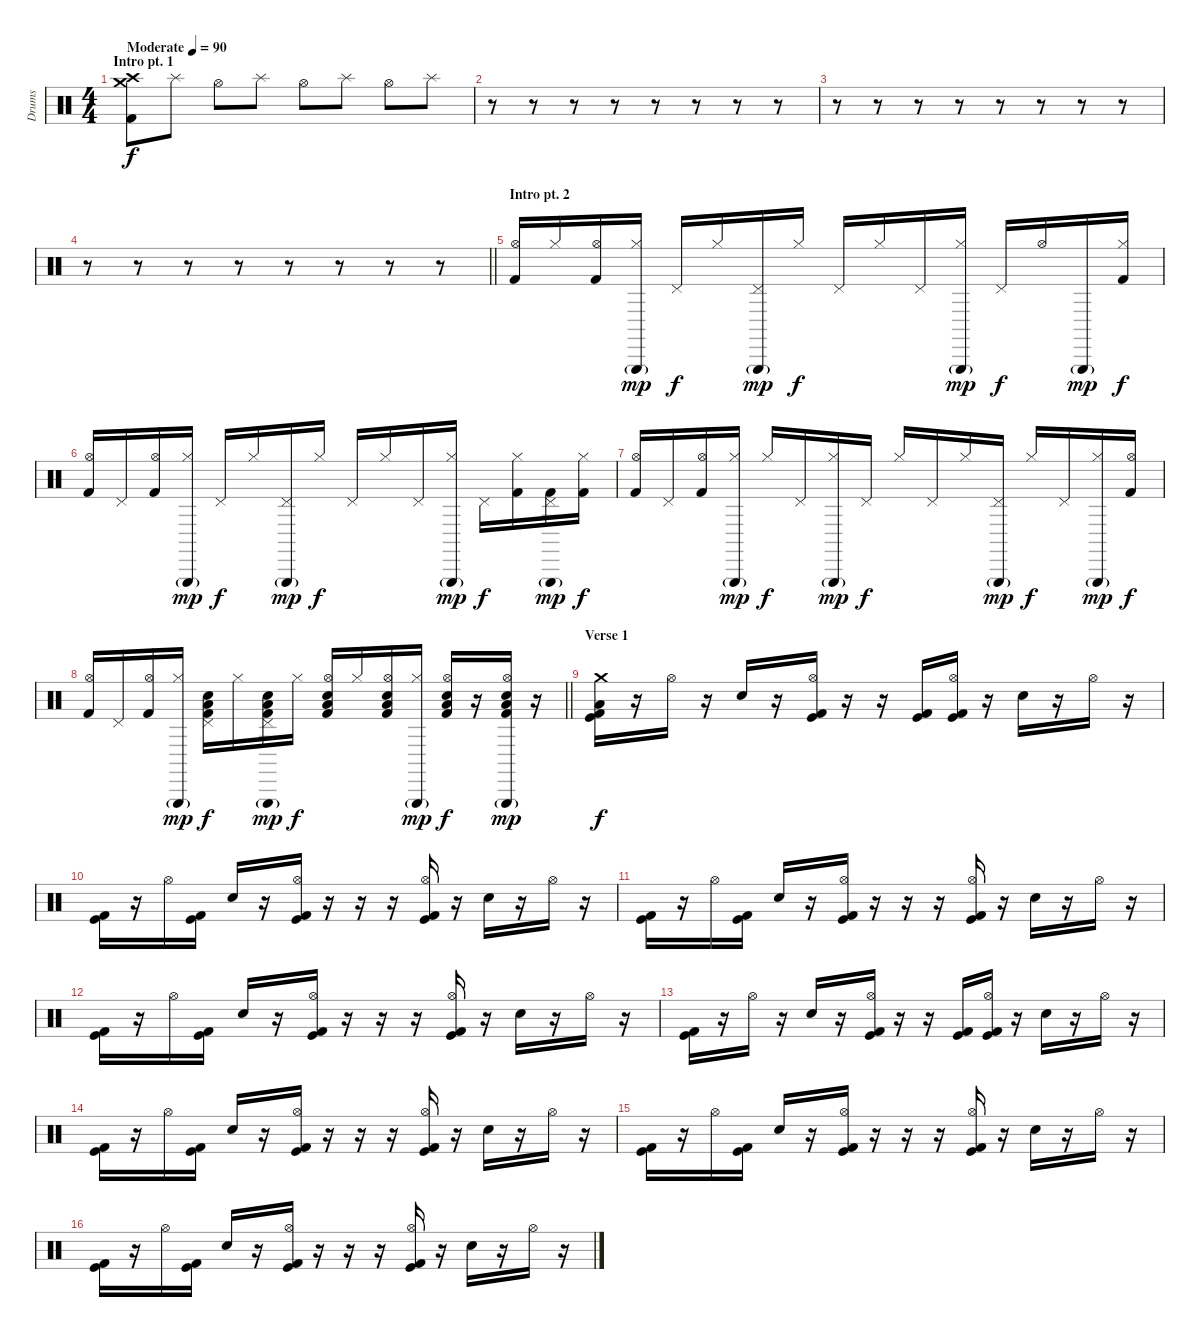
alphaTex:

\track ("Drums" "Drums") {instrument percussion}
\staff {score}
\articulation defaults
\ts (4 4)
\section ("" "Intro pt. 1")
\tempo (90 "Moderate")
\clef neutral
\ks c
("Crash medium (hit)" "Crash high (hit)" "Kick (hit) 2").8{dy f volume 0} "Splash (hit)".8 "Hi-Hat (open)".8 "Splash (hit)".8 "Hi-Hat (open)".8 "Splash (hit)".8 "Hi-Hat (open)".8 "Splash (hit)".8 |
r.8 r.8 r.8 r.8 r.8 r.8 r.8 r.8 |
r.8 r.8 r.8 r.8 r.8 r.8 r.8 r.8 |
\barLineRight lightlight
r.8 r.8 r.8 r.8 r.8 r.8 r.8 r.8 |
\section ("" "Intro pt. 2")
("Hi-Hat (open)" "Kick (hit) 2").16{volume 16} "Hi-Hat (closed)".16 ("Hi-Hat (open)" "Kick (hit) 2").16 ("Triangle (hit)"{g} "Hi-Hat (closed)").16{dy mp} "Pedal Hi-Hat (hit)".16{dy f} "Hi-Hat (closed)".16 ("Triangle (hit)"{g} "Pedal Hi-Hat (hit)").16{dy mp} "Hi-Hat (closed)".16{dy f} "Pedal Hi-Hat (hit)".16 "Hi-Hat (closed)".16 "Pedal Hi-Hat (hit)".16 ("Triangle (hit)"{g} "Hi-Hat (closed)").16{dy mp} "Pedal Hi-Hat (hit)".16{dy f} "Hi-Hat (open)".16 "Triangle (hit)"{g}.16{dy mp} ("Hi-Hat (closed)" "Kick (hit) 2").16{dy f} |
("Hi-Hat (open)" "Kick (hit) 2").16 "Pedal Hi-Hat (hit)".16 ("Hi-Hat (open)" "Kick (hit) 2").16 ("Triangle (hit)"{g} "Hi-Hat (closed)").16{dy mp} "Pedal Hi-Hat (hit)".16{dy f} "Hi-Hat (closed)".16 ("Triangle (hit)"{g} "Pedal Hi-Hat (hit)").16{dy mp} "Hi-Hat (closed)".16{dy f} "Pedal Hi-Hat (hit)".16 "Hi-Hat (closed)".16 "Pedal Hi-Hat (hit)".16 ("Triangle (hit)"{g} "Hi-Hat (closed)").16{dy mp} "Pedal Hi-Hat (hit)".16{dy f} ("Hi-Hat (closed)" "Kick (hit) 2").16 ("Triangle (hit)"{g} "Pedal Hi-Hat (hit)" "Kick (hit) 2").16{dy mp} ("Hi-Hat (closed)" "Kick (hit) 2").16{dy f} |
("Hi-Hat (open)" "Kick (hit) 2").16 "Pedal Hi-Hat (hit)".16 ("Hi-Hat (open)" "Kick (hit) 2").16 ("Triangle (hit)"{g} "Hi-Hat (closed)").16{dy mp} "Hi-Hat (closed)".16{dy f} "Pedal Hi-Hat (hit)".16 ("Triangle (hit)"{g} "Hi-Hat (closed)").16{dy mp} "Pedal Hi-Hat (hit)".16{dy f} "Hi-Hat (closed)".16 "Pedal Hi-Hat (hit)".16 "Hi-Hat (closed)".16 ("Triangle (hit)"{g} "Pedal Hi-Hat (hit)").16{dy mp} "Hi-Hat (closed)".16{dy f} "Pedal Hi-Hat (hit)".16 ("Triangle (hit)"{g} "Hi-Hat (closed)").16{dy mp} ("Hi-Hat (open)" "Kick (hit) 2").16{dy f} |
\barLineRight lightlight
("Hi-Hat (open)" "Kick (hit) 2").16 "Pedal Hi-Hat (hit)".16 ("Hi-Hat (open)" "Kick (hit) 2").16 ("Triangle (hit)"{g} "Hi-Hat (closed)").16{dy mp} ("Electric Snare (hit)" "Low Floor Tom (hit)" "Pedal Hi-Hat (hit)" "Kick (hit) 2").16{dy f} "Hi-Hat (closed)".16 ("Electric Snare (hit)" "Low Floor Tom (hit)" "Pedal Hi-Hat (hit)" "Triangle (hit)"{g} "Kick (hit) 2").16{dy mp} "Hi-Hat (closed)".16{dy f} ("Electric Snare (hit)" "Low Floor Tom (hit)" "Hi-Hat (open)" "Kick (hit) 2").16 "Hi-Hat (closed)".16 ("Electric Snare (hit)" "Low Floor Tom (hit)" "Hi-Hat (open)" "Kick (hit) 2").16 ("Hi-Hat (closed)" "Triangle (hit)"{g}).16{dy mp} ("Electric Snare (hit)" "Low Floor Tom (hit)" "Hi-Hat (open)" "Kick (hit) 2").16{dy f} r.16 ("Electric Snare (hit)" "Low Floor Tom (hit)" "Hi-Hat (open)" "Triangle (hit)"{g} "Kick (hit) 2").16{dy mp} r.16 |
\section ("" "Verse 1")
("Crash medium (hit)" "Low Floor Tom (hit)" "Kick (hit)" "Kick (hit) 2").16{dy f} r.16 "Hi-Hat (open)".16 r.16 "Electric Snare (hit)".16 r.16 ("Hi-Hat (open)" "Kick (hit)" "Kick (hit) 2").16 r.16 r.16 ("Kick (hit)" "Kick (hit) 2").16 ("Hi-Hat (open)" "Kick (hit)" "Kick (hit) 2").16 r.16 "Electric Snare (hit)".16 r.16 "Hi-Hat (open)".16 r.16 |
("Kick (hit)" "Kick (hit) 2").16 r.16 "Hi-Hat (open)".16 ("Kick (hit)" "Kick (hit) 2").16 "Electric Snare (hit)".16 r.16 ("Hi-Hat (open)" "Kick (hit)" "Kick (hit) 2").16 r.16 r.16 r.16 ("Hi-Hat (open)" "Kick (hit)" "Kick (hit) 2").16 r.16 "Electric Snare (hit)".16 r.16 "Hi-Hat (open)".16 r.16 |
("Kick (hit)" "Kick (hit) 2").16 r.16 "Hi-Hat (open)".16 ("Kick (hit)" "Kick (hit) 2").16 "Electric Snare (hit)".16 r.16 ("Hi-Hat (open)" "Kick (hit)" "Kick (hit) 2").16 r.16 r.16 r.16 ("Hi-Hat (open)" "Kick (hit)" "Kick (hit) 2").16 r.16 "Electric Snare (hit)".16 r.16 "Hi-Hat (open)".16 r.16 |
("Kick (hit)" "Kick (hit) 2").16 r.16 "Hi-Hat (open)".16 ("Kick (hit)" "Kick (hit) 2").16 "Electric Snare (hit)".16 r.16 ("Hi-Hat (open)" "Kick (hit)" "Kick (hit) 2").16 r.16 r.16 r.16 ("Hi-Hat (open)" "Kick (hit)" "Kick (hit) 2").16 r.16 "Electric Snare (hit)".16 r.16 "Hi-Hat (open)".16 r.16 |
("Kick (hit)" "Kick (hit) 2").16 r.16 "Hi-Hat (open)".16 r.16 "Electric Snare (hit)".16 r.16 ("Hi-Hat (open)" "Kick (hit)" "Kick (hit) 2").16 r.16 r.16 ("Kick (hit)" "Kick (hit) 2").16 ("Hi-Hat (open)" "Kick (hit)" "Kick (hit) 2").16 r.16 "Electric Snare (hit)".16 r.16 "Hi-Hat (open)".16 r.16 |
("Kick (hit)" "Kick (hit) 2").16 r.16 "Hi-Hat (open)".16 ("Kick (hit)" "Kick (hit) 2").16 "Electric Snare (hit)".16 r.16 ("Hi-Hat (open)" "Kick (hit)" "Kick (hit) 2").16 r.16 r.16 r.16 ("Hi-Hat (open)" "Kick (hit)" "Kick (hit) 2").16 r.16 "Electric Snare (hit)".16 r.16 "Hi-Hat (open)".16 r.16 |
("Kick (hit)" "Kick (hit) 2").16 r.16 "Hi-Hat (open)".16 ("Kick (hit)" "Kick (hit) 2").16 "Electric Snare (hit)".16 r.16 ("Hi-Hat (open)" "Kick (hit)" "Kick (hit) 2").16 r.16 r.16 r.16 ("Hi-Hat (open)" "Kick (hit)" "Kick (hit) 2").16 r.16 "Electric Snare (hit)".16 r.16 "Hi-Hat (open)".16 r.16 |
("Kick (hit)" "Kick (hit) 2").16 r.16 "Hi-Hat (open)".16 ("Kick (hit)" "Kick (hit) 2").16 "Electric Snare (hit)".16 r.16 ("Hi-Hat (open)" "Kick (hit)" "Kick (hit) 2").16 r.16 r.16 r.16 ("Hi-Hat (open)" "Kick (hit)" "Kick (hit) 2").16 r.16 "Electric Snare (hit)".16 r.16 "Hi-Hat (open)".16 r.16
